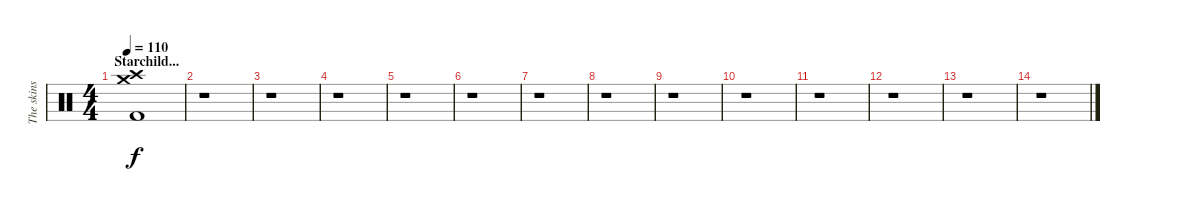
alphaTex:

\track ("The skins" "The skins") {instrument percussion}
\staff {score}
\articulation defaults
\ts (4 4)
\section ("" "Starchild...")
\tempo 110
\clef neutral
\ks c
("Crash high (hit)" "Crash medium (hit)" "Kick (hit) 2").1{dy f} |
r.1 |
r.1 |
r.1 |
r.1 |
r.1 |
r.1 |
r.1 |
r.1 |
r.1 |
r.1 |
r.1 |
r.1 |
r.1
